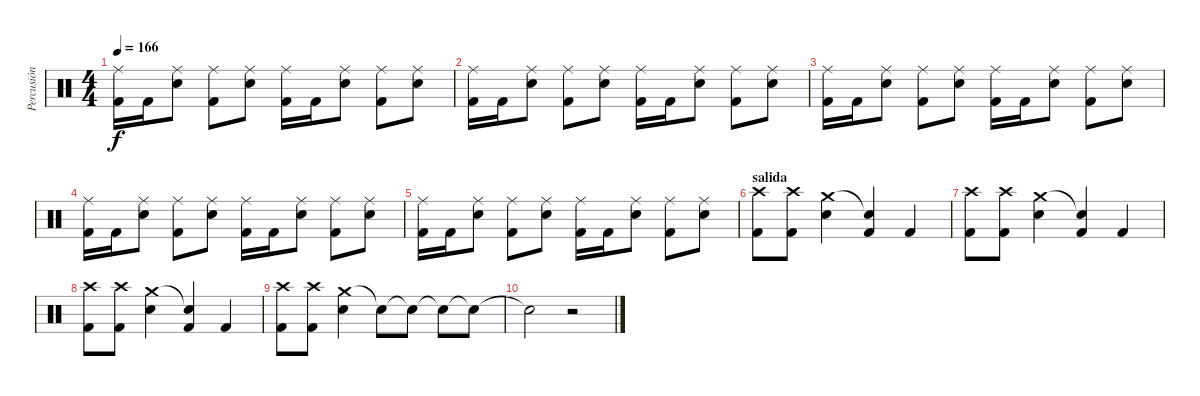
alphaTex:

\track ("Percusión" "Percusión") {instrument percussion}
\staff {score}
\articulation defaults
\ts (4 4)
\tempo 166
\clef neutral
\ks c
("Ride (middle)" "Kick (hit) 2").16{dy f} "Kick (hit) 2".16 ("Ride (middle)" "Electric Snare (hit)").8 ("Ride (middle)" "Kick (hit) 2").8 ("Ride (middle)" "Electric Snare (hit)").8 ("Ride (middle)" "Kick (hit) 2").16 "Kick (hit) 2".16 ("Ride (middle)" "Electric Snare (hit)").8 ("Ride (middle)" "Kick (hit) 2").8 ("Ride (middle)" "Electric Snare (hit)").8 |
("Ride (middle)" "Kick (hit) 2").16 "Kick (hit) 2".16 ("Ride (middle)" "Electric Snare (hit)").8 ("Ride (middle)" "Kick (hit) 2").8 ("Ride (middle)" "Electric Snare (hit)").8 ("Ride (middle)" "Kick (hit) 2").16 "Kick (hit) 2".16 ("Ride (middle)" "Electric Snare (hit)").8 ("Ride (middle)" "Kick (hit) 2").8 ("Ride (middle)" "Electric Snare (hit)").8 |
("Ride (middle)" "Kick (hit) 2").16 "Kick (hit) 2".16 ("Ride (middle)" "Electric Snare (hit)").8 ("Ride (middle)" "Kick (hit) 2").8 ("Ride (middle)" "Electric Snare (hit)").8 ("Ride (middle)" "Kick (hit) 2").16 "Kick (hit) 2".16 ("Ride (middle)" "Electric Snare (hit)").8 ("Ride (middle)" "Kick (hit) 2").8 ("Ride (middle)" "Electric Snare (hit)").8 |
("Ride (middle)" "Kick (hit) 2").16 "Kick (hit) 2".16 ("Ride (middle)" "Electric Snare (hit)").8 ("Ride (middle)" "Kick (hit) 2").8 ("Ride (middle)" "Electric Snare (hit)").8 ("Ride (middle)" "Kick (hit) 2").16 "Kick (hit) 2".16 ("Ride (middle)" "Electric Snare (hit)").8 ("Ride (middle)" "Kick (hit) 2").8 ("Ride (middle)" "Electric Snare (hit)").8 |
("Ride (middle)" "Kick (hit) 2").16 "Kick (hit) 2".16 ("Ride (middle)" "Electric Snare (hit)").8 ("Ride (middle)" "Kick (hit) 2").8 ("Ride (middle)" "Electric Snare (hit)").8 ("Ride (middle)" "Kick (hit) 2").16 "Kick (hit) 2".16 ("Ride (middle)" "Electric Snare (hit)").8 ("Ride (middle)" "Kick (hit) 2").8 ("Ride (middle)" "Electric Snare (hit)").8 |
\section ("" "salida")
("Crash high (hit)" "Kick (hit) 2").8 ("Crash high (hit)" "Kick (hit) 2").8 ("Crash medium (hit)" "Electric Snare (hit)").4 ("Snare (hit)"{t} "Kick (hit) 2").4 "Kick (hit) 2".4 |
("Crash high (hit)" "Kick (hit) 2").8 ("Crash high (hit)" "Kick (hit) 2").8 ("Crash medium (hit)" "Electric Snare (hit)").4 ("Snare (hit)"{t} "Kick (hit) 2").4 "Kick (hit) 2".4 |
("Crash high (hit)" "Kick (hit) 2").8 ("Crash high (hit)" "Kick (hit) 2").8 ("Crash medium (hit)" "Electric Snare (hit)").4 ("Snare (hit)"{t} "Kick (hit) 2").4 "Kick (hit) 2".4 |
("Crash high (hit)" "Kick (hit) 2").8 ("Crash high (hit)" "Kick (hit) 2").8 ("Crash medium (hit)" "Electric Snare (hit)").4 "Snare (hit)"{t}.8 "Snare (hit)"{t}.8 "Snare (hit)"{t}.8 "Snare (hit)"{t}.8 |
"Snare (hit)"{t}.2 r.2
